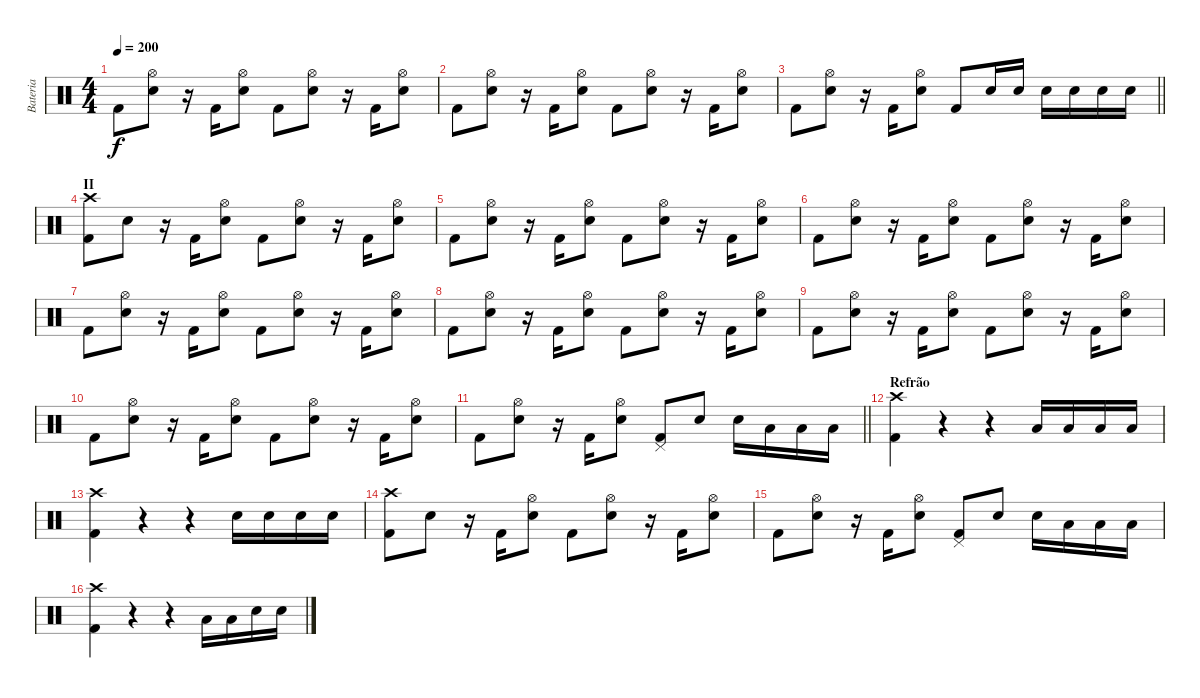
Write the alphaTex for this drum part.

\track ("Bateria" "Bateria") {instrument percussion}
\staff {score}
\articulation defaults
\ts (4 4)
\tempo 200
\clef neutral
\ks c "Kick (hit) 2".8{dy f}
("Electric Snare (hit)" "Hi-Hat (open)").8 r.16 "Kick (hit) 2".16 ("Electric Snare (hit)" "Hi-Hat (open)").8 "Kick (hit) 2".8 ("Electric Snare (hit)" "Hi-Hat (open)").8 r.16 "Kick (hit) 2".16 ("Electric Snare (hit)" "Hi-Hat (open)").8 |
"Kick (hit) 2".8 ("Electric Snare (hit)" "Hi-Hat (open)").8 r.16 "Kick (hit) 2".16 ("Electric Snare (hit)" "Hi-Hat (open)").8 "Kick (hit) 2".8 ("Electric Snare (hit)" "Hi-Hat (open)").8 r.16 "Kick (hit) 2".16 ("Electric Snare (hit)" "Hi-Hat (open)").8 |
\barLineRight lightlight "Kick (hit) 2".8
("Electric Snare (hit)" "Hi-Hat (open)").8 r.16 "Kick (hit) 2".16 ("Electric Snare (hit)" "Hi-Hat (open)").8 "Kick (hit) 2".8 "Electric Snare (hit)".16 "Electric Snare (hit)".16 "Electric Snare (hit)".16 "Electric Snare (hit)".16 "Electric Snare (hit)".16 "Electric Snare (hit)".16 |
\section ("" "II")
("Kick (hit) 2" "Crash high (hit)").8 "Electric Snare (hit)".8 r.16 "Kick (hit) 2".16 ("Electric Snare (hit)" "Hi-Hat (open)").8 "Kick (hit) 2".8 ("Electric Snare (hit)" "Hi-Hat (open)").8 r.16 "Kick (hit) 2".16 ("Electric Snare (hit)" "Hi-Hat (open)").8 |
"Kick (hit) 2".8 ("Electric Snare (hit)" "Hi-Hat (open)").8 r.16 "Kick (hit) 2".16 ("Electric Snare (hit)" "Hi-Hat (open)").8 "Kick (hit) 2".8 ("Electric Snare (hit)" "Hi-Hat (open)").8 r.16 "Kick (hit) 2".16 ("Electric Snare (hit)" "Hi-Hat (open)").8 |
"Kick (hit) 2".8 ("Electric Snare (hit)" "Hi-Hat (open)").8 r.16 "Kick (hit) 2".16 ("Electric Snare (hit)" "Hi-Hat (open)").8 "Kick (hit) 2".8 ("Electric Snare (hit)" "Hi-Hat (open)").8 r.16 "Kick (hit) 2".16 ("Electric Snare (hit)" "Hi-Hat (open)").8 |
"Kick (hit) 2".8 ("Electric Snare (hit)" "Hi-Hat (open)").8 r.16 "Kick (hit) 2".16 ("Electric Snare (hit)" "Hi-Hat (open)").8 "Kick (hit) 2".8 ("Electric Snare (hit)" "Hi-Hat (open)").8 r.16 "Kick (hit) 2".16 ("Electric Snare (hit)" "Hi-Hat (open)").8 |
"Kick (hit) 2".8 ("Electric Snare (hit)" "Hi-Hat (open)").8 r.16 "Kick (hit) 2".16 ("Electric Snare (hit)" "Hi-Hat (open)").8 "Kick (hit) 2".8 ("Electric Snare (hit)" "Hi-Hat (open)").8 r.16 "Kick (hit) 2".16 ("Electric Snare (hit)" "Hi-Hat (open)").8 |
"Kick (hit) 2".8 ("Electric Snare (hit)" "Hi-Hat (open)").8 r.16 "Kick (hit) 2".16 ("Electric Snare (hit)" "Hi-Hat (open)").8 "Kick (hit) 2".8 ("Electric Snare (hit)" "Hi-Hat (open)").8 r.16 "Kick (hit) 2".16 ("Electric Snare (hit)" "Hi-Hat (open)").8 |
"Kick (hit) 2".8 ("Electric Snare (hit)" "Hi-Hat (open)").8 r.16 "Kick (hit) 2".16 ("Electric Snare (hit)" "Hi-Hat (open)").8 "Kick (hit) 2".8 ("Electric Snare (hit)" "Hi-Hat (open)").8 r.16 "Kick (hit) 2".16 ("Electric Snare (hit)" "Hi-Hat (open)").8 |
\barLineRight lightlight "Kick (hit) 2".8
("Electric Snare (hit)" "Hi-Hat (open)").8 r.16 "Kick (hit) 2".16 ("Electric Snare (hit)" "Hi-Hat (open)").8 ("Kick (hit) 2" "Pedal Hi-Hat (hit)").8 "Electric Snare (hit)".8 "Electric Snare (hit)".16 "Low Tom (hit)".16 "Low Tom (hit)".16 "Low Floor Tom (hit)".16 |
\section ("" "Refrão")
("Kick (hit) 2" "Crash high (hit)").4 r.4 r.4 "Low Tom (hit)".16 "Low Tom (hit)".16 "Low Tom (hit)".16 "Low Tom (hit)".16 |
("Kick (hit) 2" "Crash high (hit)").4 r.4 r.4 "Electric Snare (hit)".16 "Electric Snare (hit)".16 "Electric Snare (hit)".16 "Electric Snare (hit)".16 |
("Kick (hit) 2" "Crash high (hit)").8 "Electric Snare (hit)".8 r.16 "Kick (hit) 2".16 ("Electric Snare (hit)" "Hi-Hat (open)").8 "Kick (hit) 2".8 ("Electric Snare (hit)" "Hi-Hat (open)").8 r.16 "Kick (hit) 2".16 ("Electric Snare (hit)" "Hi-Hat (open)").8 |
"Kick (hit) 2".8 ("Electric Snare (hit)" "Hi-Hat (open)").8 r.16 "Kick (hit) 2".16 ("Electric Snare (hit)" "Hi-Hat (open)").8 ("Kick (hit) 2" "Pedal Hi-Hat (hit)").8 "Electric Snare (hit)".8 "Electric Snare (hit)".16 "Low Tom (hit)".16 "Low Tom (hit)".16 "Low Floor Tom (hit)".16 |
("Kick (hit) 2" "Crash high (hit)").4 r.4 r.4 "Low Tom (hit)".16 "Low Tom (hit)".16 "Electric Snare (hit)".16 "Electric Snare (hit)".16
